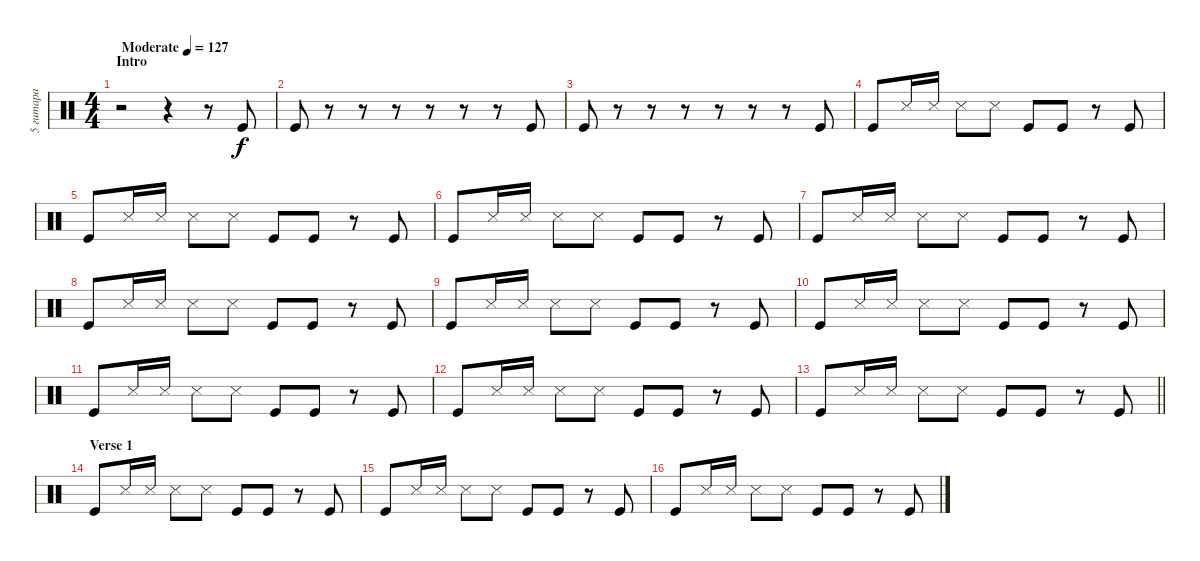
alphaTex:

\track ("5 гитара" "5 гитара") {instrument percussion}
\staff {score}
\articulation defaults
\ts (4 4)
\section ("" "Intro")
\tempo (127 "Moderate")
\clef neutral
\ks c
r.2{dy f} r.4 r.8 "Kick (hit)".8 |
"Kick (hit)".8 r.8 r.8 r.8 r.8 r.8 r.8 "Kick (hit)".8 |
"Kick (hit)".8 r.8 r.8 r.8 r.8 r.8 r.8 "Kick (hit)".8 |
"Kick (hit)".8 "Snare (side stick) 3".16 "Snare (side stick) 3".16 "Snare (side stick) 3".8 "Snare (side stick) 3".8 "Kick (hit)".8 "Kick (hit)".8 r.8 "Kick (hit)".8 |
"Kick (hit)".8 "Snare (side stick) 3".16 "Snare (side stick) 3".16 "Snare (side stick) 3".8 "Snare (side stick) 3".8 "Kick (hit)".8 "Kick (hit)".8 r.8 "Kick (hit)".8 |
"Kick (hit)".8 "Snare (side stick) 3".16 "Snare (side stick) 3".16 "Snare (side stick) 3".8 "Snare (side stick) 3".8 "Kick (hit)".8 "Kick (hit)".8 r.8 "Kick (hit)".8 |
"Kick (hit)".8 "Snare (side stick) 3".16 "Snare (side stick) 3".16 "Snare (side stick) 3".8 "Snare (side stick) 3".8 "Kick (hit)".8 "Kick (hit)".8 r.8 "Kick (hit)".8 |
"Kick (hit)".8 "Snare (side stick) 3".16 "Snare (side stick) 3".16 "Snare (side stick) 3".8 "Snare (side stick) 3".8 "Kick (hit)".8 "Kick (hit)".8 r.8 "Kick (hit)".8 |
"Kick (hit)".8 "Snare (side stick) 3".16 "Snare (side stick) 3".16 "Snare (side stick) 3".8 "Snare (side stick) 3".8 "Kick (hit)".8 "Kick (hit)".8 r.8 "Kick (hit)".8 |
"Kick (hit)".8 "Snare (side stick) 3".16 "Snare (side stick) 3".16 "Snare (side stick) 3".8 "Snare (side stick) 3".8 "Kick (hit)".8 "Kick (hit)".8 r.8 "Kick (hit)".8 |
"Kick (hit)".8 "Snare (side stick) 3".16 "Snare (side stick) 3".16 "Snare (side stick) 3".8 "Snare (side stick) 3".8 "Kick (hit)".8 "Kick (hit)".8 r.8 "Kick (hit)".8 |
"Kick (hit)".8 "Snare (side stick) 3".16 "Snare (side stick) 3".16 "Snare (side stick) 3".8 "Snare (side stick) 3".8 "Kick (hit)".8 "Kick (hit)".8 r.8 "Kick (hit)".8 |
\barLineRight lightlight "Kick (hit)".8 "Snare (side stick) 3".16 "Snare (side stick) 3".16 "Snare (side stick) 3".8 "Snare (side stick) 3".8 "Kick (hit)".8 "Kick (hit)".8
r.8 "Kick (hit)".8 |
\section ("" "Verse 1")
"Kick (hit)".8 "Snare (side stick) 3".16 "Snare (side stick) 3".16 "Snare (side stick) 3".8 "Snare (side stick) 3".8 "Kick (hit)".8 "Kick (hit)".8 r.8 "Kick (hit)".8 |
"Kick (hit)".8 "Snare (side stick) 3".16 "Snare (side stick) 3".16 "Snare (side stick) 3".8 "Snare (side stick) 3".8 "Kick (hit)".8 "Kick (hit)".8 r.8 "Kick (hit)".8 |
"Kick (hit)".8 "Snare (side stick) 3".16 "Snare (side stick) 3".16 "Snare (side stick) 3".8 "Snare (side stick) 3".8 "Kick (hit)".8 "Kick (hit)".8 r.8 "Kick (hit)".8
